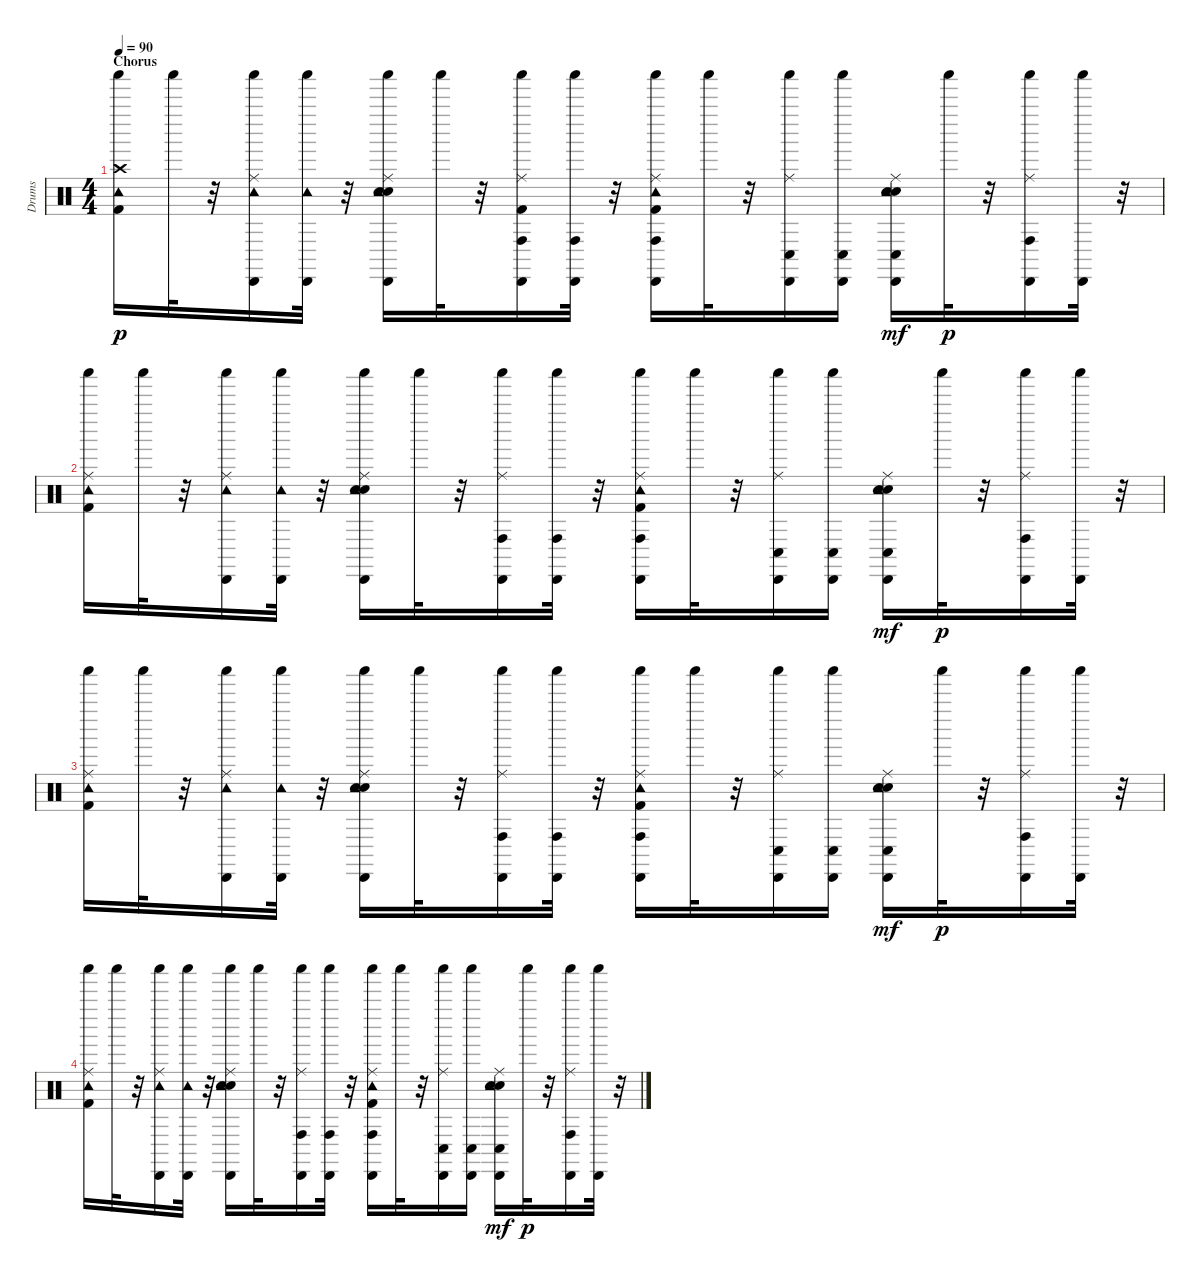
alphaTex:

\track ("Drums" "Drums") {instrument percussion}
\staff {score}
\articulation defaults
\ts (4 4)
\section ("" "Chorus")
\tempo 90
\clef neutral
\ks c
("Crash high (hit)" "Kick (hit) 2" "Tambourine (hit)" "Shaker (hit)").16{dy p} "Shaker (hit)".32 r.32 ("Ride (middle)" "Tambourine (hit)" "Cabasa (hit)" "Shaker (hit)").16 ("Tambourine (hit)" "Cabasa (hit)" "Shaker (hit)").32 r.32 ("Electric Snare (hit)" "Ride (middle)" "Snare (hit) 2" "Tambourine (hit)" "Cabasa (hit)" "Shaker (hit)").16 "Shaker (hit)".32 r.32 ("Ride (middle)" "Kick (hit) 2" "Cabasa (hit)" "Conga high (hit)" "Shaker (hit)").16 ("Cabasa (hit)" "Conga high (hit)" "Shaker (hit)").32 r.32 ("Ride (middle)" "Kick (hit) 2" "Cabasa (hit)" "Conga high (hit)" "Tambourine (hit)" "Shaker (hit)").16 "Shaker (hit)".32 r.32 ("Ride (middle)" "Cabasa (hit)" "Conga low (hit)" "Shaker (hit)").16 ("Cabasa (hit)" "Conga low (hit)" "Shaker (hit)").16 ("Electric Snare (hit)" "Ride (middle)" "Snare (hit) 2" "Cabasa (hit)" "Conga low (hit)" "Tambourine (hit)").16{dy mf} "Shaker (hit)".32{dy p} r.32 ("Ride (middle)" "Cabasa (hit)" "Conga high (hit)" "Shaker (hit)").16 ("Cabasa (hit)" "Shaker (hit)").32 r.32 |
("Ride (middle)" "Kick (hit) 2" "Tambourine (hit)" "Shaker (hit)").16 "Shaker (hit)".32 r.32 ("Ride (middle)" "Tambourine (hit)" "Cabasa (hit)" "Shaker (hit)").16 ("Tambourine (hit)" "Cabasa (hit)" "Shaker (hit)").32 r.32 ("Electric Snare (hit)" "Ride (middle)" "Snare (hit) 2" "Tambourine (hit)" "Cabasa (hit)" "Shaker (hit)").16 "Shaker (hit)".32 r.32 ("Ride (middle)" "Cabasa (hit)" "Conga high (hit)" "Shaker (hit)").16 ("Cabasa (hit)" "Conga high (hit)" "Shaker (hit)").32 r.32 ("Ride (middle)" "Kick (hit) 2" "Cabasa (hit)" "Conga high (hit)" "Tambourine (hit)" "Shaker (hit)").16 "Shaker (hit)".32 r.32 ("Ride (middle)" "Cabasa (hit)" "Conga low (hit)" "Shaker (hit)").16 ("Cabasa (hit)" "Conga low (hit)" "Shaker (hit)").16 ("Electric Snare (hit)" "Ride (middle)" "Snare (hit) 2" "Cabasa (hit)" "Conga low (hit)" "Tambourine (hit)").16{dy mf} "Shaker (hit)".32{dy p} r.32 ("Ride (middle)" "Cabasa (hit)" "Conga high (hit)" "Shaker (hit)").16 ("Cabasa (hit)" "Shaker (hit)").32 r.32 |
("Ride (middle)" "Kick (hit) 2" "Tambourine (hit)" "Shaker (hit)").16 "Shaker (hit)".32 r.32 ("Ride (middle)" "Tambourine (hit)" "Cabasa (hit)" "Shaker (hit)").16 ("Tambourine (hit)" "Cabasa (hit)" "Shaker (hit)").32 r.32 ("Electric Snare (hit)" "Ride (middle)" "Snare (hit) 2" "Tambourine (hit)" "Cabasa (hit)" "Shaker (hit)").16 "Shaker (hit)".32 r.32 ("Ride (middle)" "Cabasa (hit)" "Conga high (hit)" "Shaker (hit)").16 ("Cabasa (hit)" "Conga high (hit)" "Shaker (hit)").32 r.32 ("Ride (middle)" "Kick (hit) 2" "Cabasa (hit)" "Conga high (hit)" "Tambourine (hit)" "Shaker (hit)").16 "Shaker (hit)".32 r.32 ("Ride (middle)" "Cabasa (hit)" "Conga low (hit)" "Shaker (hit)").16 ("Cabasa (hit)" "Conga low (hit)" "Shaker (hit)").16 ("Electric Snare (hit)" "Ride (middle)" "Snare (hit) 2" "Cabasa (hit)" "Conga low (hit)" "Tambourine (hit)").16{dy mf} "Shaker (hit)".32{dy p} r.32 ("Ride (middle)" "Cabasa (hit)" "Conga high (hit)" "Shaker (hit)").16 ("Cabasa (hit)" "Shaker (hit)").32 r.32 |
("Ride (middle)" "Kick (hit) 2" "Tambourine (hit)" "Shaker (hit)").16 "Shaker (hit)".32 r.32 ("Ride (middle)" "Tambourine (hit)" "Cabasa (hit)" "Shaker (hit)").16 ("Tambourine (hit)" "Cabasa (hit)" "Shaker (hit)").32 r.32 ("Electric Snare (hit)" "Ride (middle)" "Snare (hit) 2" "Tambourine (hit)" "Cabasa (hit)" "Shaker (hit)").16 "Shaker (hit)".32 r.32 ("Ride (middle)" "Cabasa (hit)" "Conga high (hit)" "Shaker (hit)").16 ("Cabasa (hit)" "Conga high (hit)" "Shaker (hit)").32 r.32 ("Ride (middle)" "Kick (hit) 2" "Cabasa (hit)" "Conga high (hit)" "Tambourine (hit)" "Shaker (hit)").16 "Shaker (hit)".32 r.32 ("Ride (middle)" "Cabasa (hit)" "Conga low (hit)" "Shaker (hit)").16 ("Cabasa (hit)" "Conga low (hit)" "Shaker (hit)").16 ("Electric Snare (hit)" "Ride (middle)" "Snare (hit) 2" "Cabasa (hit)" "Conga low (hit)" "Tambourine (hit)").16{dy mf} "Shaker (hit)".32{dy p} r.32 ("Ride (middle)" "Cabasa (hit)" "Conga high (hit)" "Shaker (hit)").16 ("Cabasa (hit)" "Shaker (hit)").32 r.32
